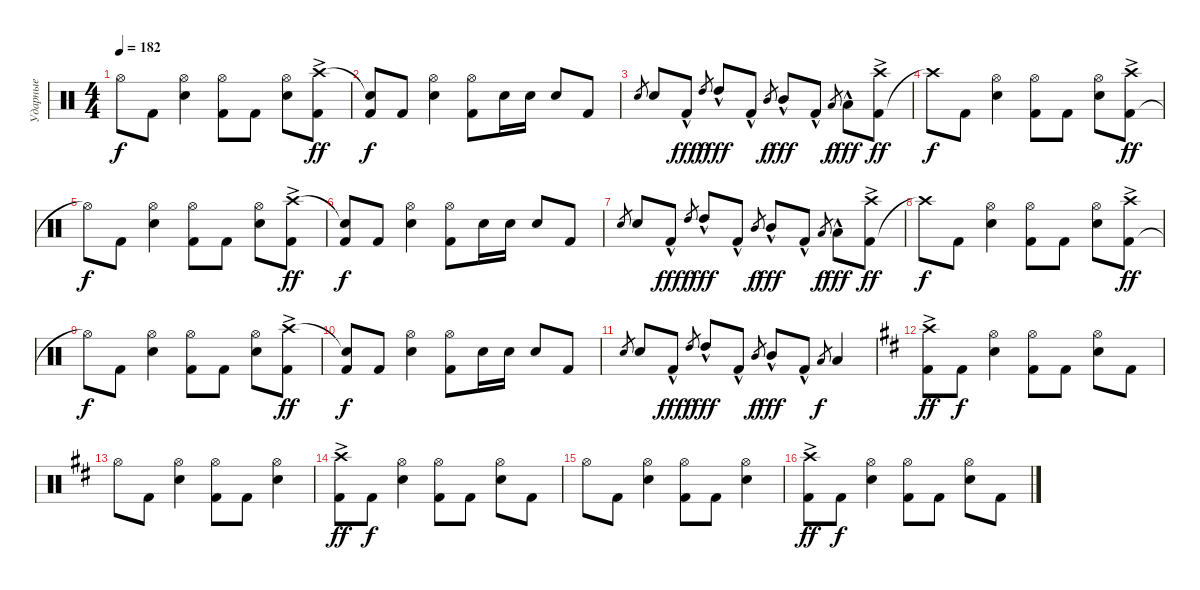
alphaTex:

\track ("Ударные" "Ударные") {instrument percussion}
\staff {score}
\articulation defaults
\ts (4 4)
\tempo 182
\clef neutral
\ks c "Hi-Hat (open)"{t}.8{dy f} "Kick (hit) 2".8
("Snare (hit) 2" "Hi-Hat (open)").4 ("Kick (hit) 2" "Hi-Hat (open)").8 "Kick (hit) 2".8 ("Snare (hit) 2" "Hi-Hat (open)").8 ("Kick (hit) 2" "Crash high (hit)"{ac}).8{dy ff} |
("Kick (hit) 2" "Snare (hit)"{t}).8{dy f} "Kick (hit) 2".8 ("Snare (hit) 2" "Hi-Hat (open)").4 ("Kick (hit) 2" "Hi-Hat (open)").8 "Snare (hit) 2".16 "Snare (hit) 2".16 "Snare (hit) 2".8 "Kick (hit) 2".8 |
"Snare (hit) 2".8{gr} "Snare (hit) 2".8 "Kick (hit) 2"{hac}.8{dy fff} "High Tom (hit)".8{gr dy f} "High Tom (hit)"{hac}.8{dy fff} "Kick (hit) 2"{hac}.8 "Mid Tom (hit)".8{gr dy f} "Mid Tom (hit)"{hac}.8{dy fff} "Kick (hit) 2"{hac}.8 "Low Tom (hit)".8{gr dy f} "Low Tom (hit)"{hac}.8{dy fff} ("Kick (hit) 2" "Crash high (hit)"{ac}).8{dy ff} |
"Crash high (hit)"{t}.8{dy f} "Kick (hit) 2".8 ("Snare (hit) 2" "Hi-Hat (open)").4 ("Kick (hit) 2" "Hi-Hat (open)").8 "Kick (hit) 2".8 ("Snare (hit) 2" "Hi-Hat (open)").8 ("Kick (hit) 2" "Crash high (hit)"{ac}).8{dy ff} |
"Hi-Hat (open)"{t}.8{dy f} "Kick (hit) 2".8 ("Snare (hit) 2" "Hi-Hat (open)").4 ("Kick (hit) 2" "Hi-Hat (open)").8 "Kick (hit) 2".8 ("Snare (hit) 2" "Hi-Hat (open)").8 ("Kick (hit) 2" "Crash high (hit)"{ac}).8{dy ff} |
("Kick (hit) 2" "Snare (hit)"{t}).8{dy f} "Kick (hit) 2".8 ("Snare (hit) 2" "Hi-Hat (open)").4 ("Kick (hit) 2" "Hi-Hat (open)").8 "Snare (hit) 2".16 "Snare (hit) 2".16 "Snare (hit) 2".8 "Kick (hit) 2".8 |
"Snare (hit) 2".8{gr} "Snare (hit) 2".8 "Kick (hit) 2"{hac}.8{dy fff} "High Tom (hit)".8{gr dy f} "High Tom (hit)"{hac}.8{dy fff} "Kick (hit) 2"{hac}.8 "Mid Tom (hit)".8{gr dy f} "Mid Tom (hit)"{hac}.8{dy fff} "Kick (hit) 2"{hac}.8 "Low Tom (hit)".8{gr dy f} "Low Tom (hit)"{hac}.8{dy fff} ("Kick (hit) 2" "Crash high (hit)"{ac}).8{dy ff} |
"Crash high (hit)"{t}.8{dy f} "Kick (hit) 2".8 ("Snare (hit) 2" "Hi-Hat (open)").4 ("Kick (hit) 2" "Hi-Hat (open)").8 "Kick (hit) 2".8 ("Snare (hit) 2" "Hi-Hat (open)").8 ("Kick (hit) 2" "Crash high (hit)"{ac}).8{dy ff} |
"Hi-Hat (open)"{t}.8{dy f} "Kick (hit) 2".8 ("Snare (hit) 2" "Hi-Hat (open)").4 ("Kick (hit) 2" "Hi-Hat (open)").8 "Kick (hit) 2".8 ("Snare (hit) 2" "Hi-Hat (open)").8 ("Kick (hit) 2" "Crash high (hit)"{ac}).8{dy ff} |
("Kick (hit) 2" "Snare (hit)"{t}).8{dy f} "Kick (hit) 2".8 ("Snare (hit) 2" "Hi-Hat (open)").4 ("Kick (hit) 2" "Hi-Hat (open)").8 "Snare (hit) 2".16 "Snare (hit) 2".16 "Snare (hit) 2".8 "Kick (hit) 2".8 |
"Snare (hit) 2".8{gr} "Snare (hit) 2".8 "Kick (hit) 2"{hac}.8{dy fff} "High Tom (hit)".8{gr dy f} "High Tom (hit)"{hac}.8{dy fff} "Kick (hit) 2"{hac}.8 "Mid Tom (hit)".8{gr dy f} "Mid Tom (hit)"{hac}.8{dy fff} "Kick (hit) 2"{hac}.8 "Low Tom (hit)".8{gr dy f} "Low Tom (hit)".4 |
\ks d
("Kick (hit) 2" "Crash high (hit)"{ac}).8{dy ff} "Kick (hit) 2".8{dy f} ("Snare (hit) 2" "Hi-Hat (open)").4 ("Kick (hit) 2" "Hi-Hat (open)").8 "Kick (hit) 2".8 ("Snare (hit) 2" "Hi-Hat (open)").8 "Kick (hit) 2".8 |
"Hi-Hat (open)".8 "Kick (hit) 2".8 ("Snare (hit) 2" "Hi-Hat (open)").4 ("Kick (hit) 2" "Hi-Hat (open)").8 "Kick (hit) 2".8 ("Snare (hit) 2" "Hi-Hat (open)").4 |
("Kick (hit) 2" "Crash high (hit)"{ac}).8{dy ff} "Kick (hit) 2".8{dy f} ("Snare (hit) 2" "Hi-Hat (open)").4 ("Kick (hit) 2" "Hi-Hat (open)").8 "Kick (hit) 2".8 ("Snare (hit) 2" "Hi-Hat (open)").8 "Kick (hit) 2".8 |
"Hi-Hat (open)".8 "Kick (hit) 2".8 ("Snare (hit) 2" "Hi-Hat (open)").4 ("Kick (hit) 2" "Hi-Hat (open)").8 "Kick (hit) 2".8 ("Snare (hit) 2" "Hi-Hat (open)").4 |
("Kick (hit) 2" "Crash high (hit)"{ac}).8{dy ff} "Kick (hit) 2".8{dy f} ("Snare (hit) 2" "Hi-Hat (open)").4 ("Kick (hit) 2" "Hi-Hat (open)").8 "Kick (hit) 2".8 ("Snare (hit) 2" "Hi-Hat (open)").8 "Kick (hit) 2".8
